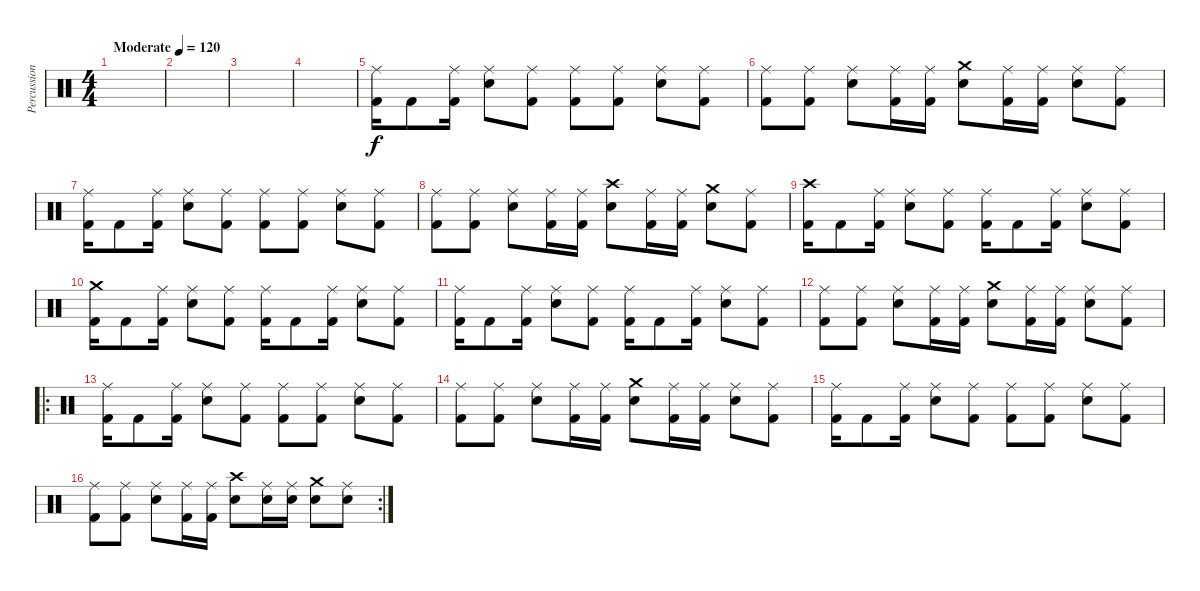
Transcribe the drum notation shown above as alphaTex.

\track ("Percussion" "Percussion") {instrument percussion}
\staff {score}
\articulation defaults
\ts (4 4)
\tempo (120 "Moderate")
\clef neutral
\ks c
|
|
|
|
("Ride (middle)" "Kick (hit) 2").16 "Kick (hit) 2".8 ("Ride (middle)" "Kick (hit) 2").16 ("Ride (middle)" "Snare (hit) 2").8 ("Ride (middle)" "Kick (hit) 2").8 ("Ride (middle)" "Kick (hit) 2").8 ("Ride (middle)" "Kick (hit) 2").8 ("Ride (middle)" "Snare (hit) 2").8 ("Ride (middle)" "Kick (hit) 2").8 |
("Ride (middle)" "Kick (hit) 2").8 ("Ride (middle)" "Kick (hit) 2").8 ("Ride (middle)" "Snare (hit) 2").8 ("Ride (middle)" "Kick (hit) 2").16 ("Ride (middle)" "Kick (hit) 2").16 ("Crash medium (hit)" "Snare (hit) 2").8 ("Ride (middle)" "Kick (hit) 2").16 ("Ride (middle)" "Kick (hit) 2").16 ("Ride (middle)" "Snare (hit) 2").8 ("Ride (middle)" "Kick (hit) 2").8 |
("Ride (middle)" "Kick (hit) 2").16 "Kick (hit) 2".8 ("Ride (middle)" "Kick (hit) 2").16 ("Ride (middle)" "Snare (hit) 2").8 ("Ride (middle)" "Kick (hit) 2").8 ("Ride (middle)" "Kick (hit) 2").8 ("Ride (middle)" "Kick (hit) 2").8 ("Ride (middle)" "Snare (hit) 2").8 ("Ride (middle)" "Kick (hit) 2").8 |
("Ride (middle)" "Kick (hit) 2").8 ("Ride (middle)" "Kick (hit) 2").8 ("Ride (middle)" "Snare (hit) 2").8 ("Ride (middle)" "Kick (hit) 2").16 ("Ride (middle)" "Kick (hit) 2").16 ("Crash high (hit)" "Snare (hit) 2").8 ("Ride (middle)" "Kick (hit) 2").16 ("Ride (middle)" "Kick (hit) 2").16 ("Crash medium (hit)" "Snare (hit) 2").8 ("Ride (middle)" "Kick (hit) 2").8 |
("Crash high (hit)" "Kick (hit) 2").16 "Kick (hit) 2".8 ("Ride (middle)" "Kick (hit) 2").16 ("Ride (middle)" "Snare (hit) 2").8 ("Ride (middle)" "Kick (hit) 2").8 ("Ride (middle)" "Kick (hit) 2").16 "Kick (hit) 2".8 ("Ride (middle)" "Kick (hit) 2").16 ("Ride (middle)" "Snare (hit) 2").8 ("Ride (middle)" "Kick (hit) 2").8 |
("Crash medium (hit)" "Kick (hit) 2").16 "Kick (hit) 2".8 ("Ride (middle)" "Kick (hit) 2").16 ("Ride (middle)" "Snare (hit) 2").8 ("Ride (middle)" "Kick (hit) 2").8 ("Ride (middle)" "Kick (hit) 2").16 "Kick (hit) 2".8 ("Ride (middle)" "Kick (hit) 2").16 ("Ride (middle)" "Snare (hit) 2").8 ("Ride (middle)" "Kick (hit) 2").8 |
("Ride (middle)" "Kick (hit) 2").16 "Kick (hit) 2".8 ("Ride (middle)" "Kick (hit) 2").16 ("Ride (middle)" "Snare (hit) 2").8 ("Ride (middle)" "Kick (hit) 2").8 ("Ride (middle)" "Kick (hit) 2").16 "Kick (hit) 2".8 ("Ride (middle)" "Kick (hit) 2").16 ("Ride (middle)" "Snare (hit) 2").8 ("Ride (middle)" "Kick (hit) 2").8 |
("Ride (middle)" "Kick (hit) 2").8 ("Ride (middle)" "Kick (hit) 2").8 ("Ride (middle)" "Snare (hit) 2").8 ("Ride (middle)" "Kick (hit) 2").16 ("Ride (middle)" "Kick (hit) 2").16 ("Crash medium (hit)" "Snare (hit) 2").8 ("Ride (middle)" "Kick (hit) 2").16 ("Ride (middle)" "Kick (hit) 2").16 ("Ride (middle)" "Snare (hit) 2").8 ("Ride (middle)" "Kick (hit) 2").8 |
\ro
("Ride (middle)" "Kick (hit) 2").16 "Kick (hit) 2".8 ("Ride (middle)" "Kick (hit) 2").16 ("Ride (middle)" "Snare (hit) 2").8 ("Ride (middle)" "Kick (hit) 2").8 ("Ride (middle)" "Kick (hit) 2").8 ("Ride (middle)" "Kick (hit) 2").8 ("Ride (middle)" "Snare (hit) 2").8 ("Ride (middle)" "Kick (hit) 2").8 |
("Ride (middle)" "Kick (hit) 2").8 ("Ride (middle)" "Kick (hit) 2").8 ("Ride (middle)" "Snare (hit) 2").8 ("Ride (middle)" "Kick (hit) 2").16 ("Ride (middle)" "Kick (hit) 2").16 ("Crash medium (hit)" "Snare (hit) 2").8 ("Ride (middle)" "Kick (hit) 2").16 ("Ride (middle)" "Kick (hit) 2").16 ("Ride (middle)" "Snare (hit) 2").8 ("Ride (middle)" "Kick (hit) 2").8 |
("Ride (middle)" "Kick (hit) 2").16 "Kick (hit) 2".8 ("Ride (middle)" "Kick (hit) 2").16 ("Ride (middle)" "Snare (hit) 2").8 ("Ride (middle)" "Kick (hit) 2").8 ("Ride (middle)" "Kick (hit) 2").8 ("Ride (middle)" "Kick (hit) 2").8 ("Ride (middle)" "Snare (hit) 2").8 ("Ride (middle)" "Kick (hit) 2").8 |
\rc 2
("Ride (middle)" "Kick (hit) 2").8 ("Ride (middle)" "Kick (hit) 2").8 ("Ride (middle)" "Snare (hit) 2").8 ("Ride (middle)" "Kick (hit) 2").16 ("Ride (middle)" "Kick (hit) 2").16 ("Crash high (hit)" "Snare (hit) 2").8 ("Ride (middle)" "Snare (hit) 2").16 ("Ride (middle)" "Snare (hit) 2").16 ("Crash medium (hit)" "Snare (hit) 2").8 ("Ride (middle)" "Snare (hit) 2").8
